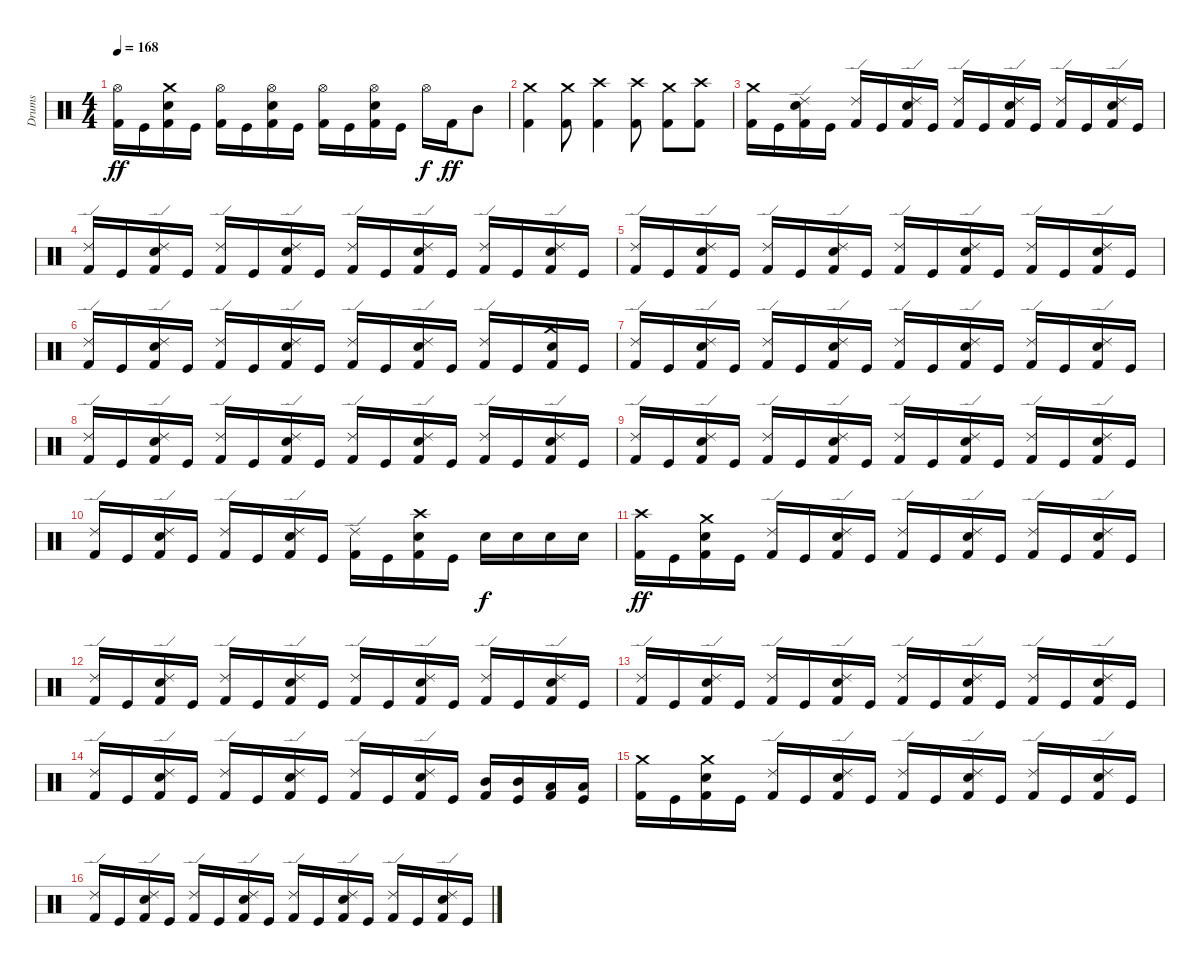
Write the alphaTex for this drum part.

\track ("Drums" "Drums") {instrument percussion}
\staff {score}
\articulation defaults
\ts (4 4)
\tempo 168
\clef neutral
\ks c
("Hi-Hat (open)" "Kick (hit) 2").16{dy ff} "Kick (hit)".16 ("Crash medium (hit)" "Electric Snare (hit)" "Kick (hit) 2").16 "Kick (hit)".16 ("Hi-Hat (open)" "Kick (hit) 2").16 "Kick (hit)".16 ("Hi-Hat (open)" "Electric Snare (hit)" "Kick (hit) 2").16 "Kick (hit)".16 ("Hi-Hat (open)" "Kick (hit) 2").16 "Kick (hit)".16 ("Hi-Hat (open)" "Electric Snare (hit)" "Kick (hit) 2").16 "Kick (hit)".16 "Hi-Hat (open)".16{dy f} "Kick (hit) 2".16{dy ff} "Mid Tom (hit)".8 |
("Crash medium (hit)" "Kick (hit) 2").4 ("Crash medium (hit)" "Kick (hit) 2").8 ("Crash high (hit)" "Kick (hit) 2").4 ("Crash high (hit)" "Kick (hit) 2").8 ("Crash medium (hit)" "Kick (hit) 2").8 ("Crash high (hit)" "Kick (hit) 2").8 |
("Crash medium (hit)" "Kick (hit) 2").16 "Kick (hit)".16 ("Ride (edge) 2" "Electric Snare (hit)" "Kick (hit) 2").16 "Kick (hit)".16 ("Ride (edge) 2" "Kick (hit) 2").16 "Kick (hit)".16 ("Ride (edge) 2" "Electric Snare (hit)" "Kick (hit) 2").16 "Kick (hit)".16 ("Ride (edge) 2" "Kick (hit) 2").16 "Kick (hit)".16 ("Ride (edge) 2" "Electric Snare (hit)" "Kick (hit) 2").16 "Kick (hit)".16 ("Ride (edge) 2" "Kick (hit) 2").16 "Kick (hit)".16 ("Ride (edge) 2" "Electric Snare (hit)" "Kick (hit) 2").16 "Kick (hit)".16 |
("Ride (edge) 2" "Kick (hit) 2").16 "Kick (hit)".16 ("Ride (edge) 2" "Electric Snare (hit)" "Kick (hit) 2").16 "Kick (hit)".16 ("Ride (edge) 2" "Kick (hit) 2").16 "Kick (hit)".16 ("Ride (edge) 2" "Electric Snare (hit)" "Kick (hit) 2").16 "Kick (hit)".16 ("Ride (edge) 2" "Kick (hit) 2").16 "Kick (hit)".16 ("Ride (edge) 2" "Electric Snare (hit)" "Kick (hit) 2").16 "Kick (hit)".16 ("Ride (edge) 2" "Kick (hit) 2").16 "Kick (hit)".16 ("Ride (edge) 2" "Electric Snare (hit)" "Kick (hit) 2").16 "Kick (hit)".16 |
("Ride (edge) 2" "Kick (hit) 2").16 "Kick (hit)".16 ("Ride (edge) 2" "Electric Snare (hit)" "Kick (hit) 2").16 "Kick (hit)".16 ("Ride (edge) 2" "Kick (hit) 2").16 "Kick (hit)".16 ("Ride (edge) 2" "Electric Snare (hit)" "Kick (hit) 2").16 "Kick (hit)".16 ("Ride (edge) 2" "Kick (hit) 2").16 "Kick (hit)".16 ("Ride (edge) 2" "Electric Snare (hit)" "Kick (hit) 2").16 "Kick (hit)".16 ("Ride (edge) 2" "Kick (hit) 2").16 "Kick (hit)".16 ("Ride (edge) 2" "Electric Snare (hit)" "Kick (hit) 2").16 "Kick (hit)".16 |
("Ride (edge) 2" "Kick (hit) 2").16 "Kick (hit)".16 ("Ride (edge) 2" "Electric Snare (hit)" "Kick (hit) 2").16 "Kick (hit)".16 ("Ride (edge) 2" "Kick (hit) 2").16 "Kick (hit)".16 ("Ride (edge) 2" "Electric Snare (hit)" "Kick (hit) 2").16 "Kick (hit)".16 ("Ride (edge) 2" "Kick (hit) 2").16 "Kick (hit)".16 ("Ride (edge) 2" "Electric Snare (hit)" "Kick (hit) 2").16 "Kick (hit)".16 ("Ride (edge) 2" "Kick (hit) 2").16 "Kick (hit)".16 ("Crash medium (hit)" "Electric Snare (hit)" "Kick (hit) 2").16 "Kick (hit)".16 |
("Ride (edge) 2" "Kick (hit) 2").16 "Kick (hit)".16 ("Ride (edge) 2" "Electric Snare (hit)" "Kick (hit) 2").16 "Kick (hit)".16 ("Ride (edge) 2" "Kick (hit) 2").16 "Kick (hit)".16 ("Ride (edge) 2" "Electric Snare (hit)" "Kick (hit) 2").16 "Kick (hit)".16 ("Ride (edge) 2" "Kick (hit) 2").16 "Kick (hit)".16 ("Ride (edge) 2" "Electric Snare (hit)" "Kick (hit) 2").16 "Kick (hit)".16 ("Ride (edge) 2" "Kick (hit) 2").16 "Kick (hit)".16 ("Ride (edge) 2" "Electric Snare (hit)" "Kick (hit) 2").16 "Kick (hit)".16 |
("Ride (edge) 2" "Kick (hit) 2").16 "Kick (hit)".16 ("Ride (edge) 2" "Electric Snare (hit)" "Kick (hit) 2").16 "Kick (hit)".16 ("Ride (edge) 2" "Kick (hit) 2").16 "Kick (hit)".16 ("Ride (edge) 2" "Electric Snare (hit)" "Kick (hit) 2").16 "Kick (hit)".16 ("Ride (edge) 2" "Kick (hit) 2").16 "Kick (hit)".16 ("Ride (edge) 2" "Electric Snare (hit)" "Kick (hit) 2").16 "Kick (hit)".16 ("Ride (edge) 2" "Kick (hit) 2").16 "Kick (hit)".16 ("Ride (edge) 2" "Electric Snare (hit)" "Kick (hit) 2").16 "Kick (hit)".16 |
("Ride (edge) 2" "Kick (hit) 2").16 "Kick (hit)".16 ("Ride (edge) 2" "Electric Snare (hit)" "Kick (hit) 2").16 "Kick (hit)".16 ("Ride (edge) 2" "Kick (hit) 2").16 "Kick (hit)".16 ("Ride (edge) 2" "Electric Snare (hit)" "Kick (hit) 2").16 "Kick (hit)".16 ("Ride (edge) 2" "Kick (hit) 2").16 "Kick (hit)".16 ("Ride (edge) 2" "Electric Snare (hit)" "Kick (hit) 2").16 "Kick (hit)".16 ("Ride (edge) 2" "Kick (hit) 2").16 "Kick (hit)".16 ("Ride (edge) 2" "Electric Snare (hit)" "Kick (hit) 2").16 "Kick (hit)".16 |
("Ride (edge) 2" "Kick (hit) 2").16 "Kick (hit)".16 ("Ride (edge) 2" "Electric Snare (hit)" "Kick (hit) 2").16 "Kick (hit)".16 ("Ride (edge) 2" "Kick (hit) 2").16 "Kick (hit)".16 ("Ride (edge) 2" "Electric Snare (hit)" "Kick (hit) 2").16 "Kick (hit)".16 ("Ride (edge) 2" "Kick (hit) 2").16 "Kick (hit)".16 ("Crash high (hit)" "Electric Snare (hit)" "Kick (hit) 2").16 "Kick (hit)".16 "Electric Snare (hit)".16{dy f} "Electric Snare (hit)".16 "Electric Snare (hit)".16 "Electric Snare (hit)".16 |
("Crash high (hit)" "Kick (hit) 2").16{dy ff} "Kick (hit)".16 ("Crash medium (hit)" "Electric Snare (hit)" "Kick (hit) 2").16 "Kick (hit)".16 ("Ride (edge) 2" "Kick (hit) 2").16 "Kick (hit)".16 ("Ride (edge) 2" "Electric Snare (hit)" "Kick (hit) 2").16 "Kick (hit)".16 ("Ride (edge) 2" "Kick (hit) 2").16 "Kick (hit)".16 ("Ride (edge) 2" "Electric Snare (hit)" "Kick (hit) 2").16 "Kick (hit)".16 ("Ride (edge) 2" "Kick (hit) 2").16 "Kick (hit)".16 ("Ride (edge) 2" "Electric Snare (hit)" "Kick (hit) 2").16 "Kick (hit)".16 |
("Ride (edge) 2" "Kick (hit) 2").16 "Kick (hit)".16 ("Ride (edge) 2" "Electric Snare (hit)" "Kick (hit) 2").16 "Kick (hit)".16 ("Ride (edge) 2" "Kick (hit) 2").16 "Kick (hit)".16 ("Ride (edge) 2" "Electric Snare (hit)" "Kick (hit) 2").16 "Kick (hit)".16 ("Ride (edge) 2" "Kick (hit) 2").16 "Kick (hit)".16 ("Ride (edge) 2" "Electric Snare (hit)" "Kick (hit) 2").16 "Kick (hit)".16 ("Ride (edge) 2" "Kick (hit) 2").16 "Kick (hit)".16 ("Ride (edge) 2" "Electric Snare (hit)" "Kick (hit) 2").16 "Kick (hit)".16 |
("Ride (edge) 2" "Kick (hit) 2").16 "Kick (hit)".16 ("Ride (edge) 2" "Electric Snare (hit)" "Kick (hit) 2").16 "Kick (hit)".16 ("Ride (edge) 2" "Kick (hit) 2").16 "Kick (hit)".16 ("Ride (edge) 2" "Electric Snare (hit)" "Kick (hit) 2").16 "Kick (hit)".16 ("Ride (edge) 2" "Kick (hit) 2").16 "Kick (hit)".16 ("Ride (edge) 2" "Electric Snare (hit)" "Kick (hit) 2").16 "Kick (hit)".16 ("Ride (edge) 2" "Kick (hit) 2").16 "Kick (hit)".16 ("Ride (edge) 2" "Electric Snare (hit)" "Kick (hit) 2").16 "Kick (hit)".16 |
("Ride (edge) 2" "Kick (hit) 2").16 "Kick (hit)".16 ("Ride (edge) 2" "Electric Snare (hit)" "Kick (hit) 2").16 "Kick (hit)".16 ("Ride (edge) 2" "Kick (hit) 2").16 "Kick (hit)".16 ("Ride (edge) 2" "Electric Snare (hit)" "Kick (hit) 2").16 "Kick (hit)".16 ("Ride (edge) 2" "Kick (hit) 2").16 "Kick (hit)".16 ("Ride (edge) 2" "Electric Snare (hit)" "Kick (hit) 2").16 "Kick (hit)".16 ("Mid Tom (hit)" "Kick (hit) 2").16 ("Mid Tom (hit)" "Kick (hit)").16 ("Low Tom (hit)" "Kick (hit) 2").16 ("Low Tom (hit)" "Kick (hit)").16 |
("Crash medium (hit)" "Kick (hit) 2").16 "Kick (hit)".16 ("Crash medium (hit)" "Electric Snare (hit)" "Kick (hit) 2").16 "Kick (hit)".16 ("Ride (edge) 2" "Kick (hit) 2").16 "Kick (hit)".16 ("Ride (edge) 2" "Electric Snare (hit)" "Kick (hit) 2").16 "Kick (hit)".16 ("Ride (edge) 2" "Kick (hit) 2").16 "Kick (hit)".16 ("Ride (edge) 2" "Electric Snare (hit)" "Kick (hit) 2").16 "Kick (hit)".16 ("Ride (edge) 2" "Kick (hit) 2").16 "Kick (hit)".16 ("Ride (edge) 2" "Electric Snare (hit)" "Kick (hit) 2").16 "Kick (hit)".16 |
("Ride (edge) 2" "Kick (hit) 2").16 "Kick (hit)".16 ("Ride (edge) 2" "Electric Snare (hit)" "Kick (hit) 2").16 "Kick (hit)".16 ("Ride (edge) 2" "Kick (hit) 2").16 "Kick (hit)".16 ("Ride (edge) 2" "Electric Snare (hit)" "Kick (hit) 2").16 "Kick (hit)".16 ("Ride (edge) 2" "Kick (hit) 2").16 "Kick (hit)".16 ("Ride (edge) 2" "Electric Snare (hit)" "Kick (hit) 2").16 "Kick (hit)".16 ("Ride (edge) 2" "Kick (hit) 2").16 "Kick (hit)".16 ("Ride (edge) 2" "Electric Snare (hit)" "Kick (hit) 2").16 "Kick (hit)".16
